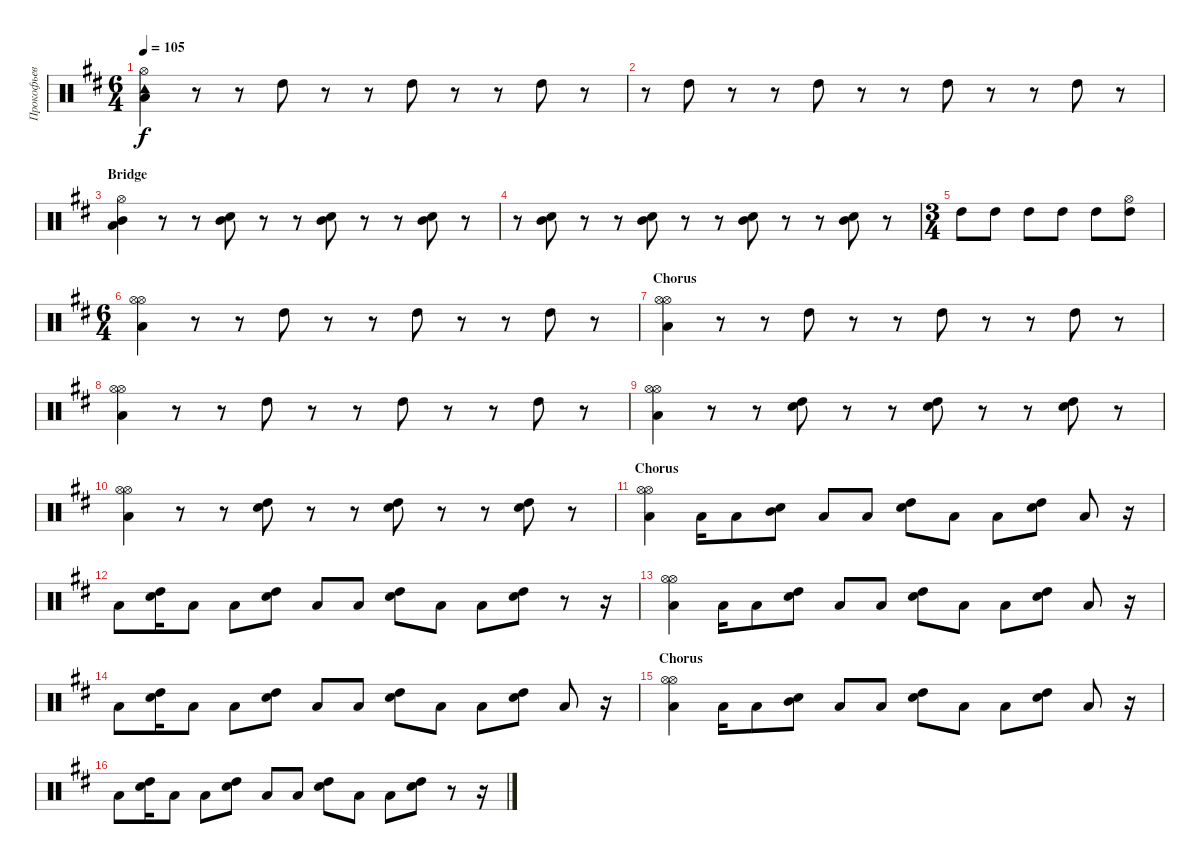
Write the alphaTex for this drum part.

\track ("Прокофьев" "Прокофьев") {instrument percussion}
\staff {score}
\articulation defaults
\ts (6 4)
\tempo 105
\clef neutral
\ks d
("Tambourine (hit)" "Hi-Hat (open)" "Low Tom (hit)").4{dy f} r.8 r.8 "High Tom (hit)".8 r.8 r.8 "High Tom (hit)".8 r.8 r.8 "High Tom (hit)".8 r.8 |
r.8 "High Tom (hit)".8 r.8 r.8 "High Tom (hit)".8 r.8 r.8 "High Tom (hit)".8 r.8 r.8 "High Tom (hit)".8 r.8 |
\section ("" "Bridge")
("Mid Tom (hit)" "Hi-Hat (open)" "Low Tom (hit)").4 r.8 r.8 ("Mid Tom (hit)" "Snare (hit) 2").8 r.8 r.8 ("Mid Tom (hit)" "Snare (hit) 2").8 r.8 r.8 ("Mid Tom (hit)" "Snare (hit) 2").8 r.8 |
r.8 ("Mid Tom (hit)" "Snare (hit) 2").8 r.8 r.8 ("Mid Tom (hit)" "Snare (hit) 2").8 r.8 r.8 ("Mid Tom (hit)" "Snare (hit) 2").8 r.8 r.8 ("Mid Tom (hit)" "Snare (hit) 2").8 r.8 |
\ts (3 4)
"High Tom (hit)".8 "High Tom (hit)".8 "High Tom (hit)".8 "High Tom (hit)".8 "High Tom (hit)".8 ("High Tom (hit)" "Hi-Hat (open)").8 |
\ts (6 4)
("Low Tom (hit)" "Hi-Hat (open)" "Hi-Hat (open)").4 r.8 r.8 "High Tom (hit)".8 r.8 r.8 "High Tom (hit)".8 r.8 r.8 "High Tom (hit)".8 r.8 |
\section ("" "Chorus")
("Low Tom (hit)" "Hi-Hat (open)" "Hi-Hat (open)").4 r.8 r.8 "High Tom (hit)".8 r.8 r.8 "High Tom (hit)".8 r.8 r.8 "High Tom (hit)".8 r.8 |
("Low Tom (hit)" "Hi-Hat (open)" "Hi-Hat (open)").4 r.8 r.8 "High Tom (hit)".8 r.8 r.8 "High Tom (hit)".8 r.8 r.8 "High Tom (hit)".8 r.8 |
("Low Tom (hit)" "Hi-Hat (open)" "Hi-Hat (open)").4 r.8 r.8 ("High Tom (hit)" "Snare (hit) 2").8 r.8 r.8 ("High Tom (hit)" "Snare (hit) 2").8 r.8 r.8 ("High Tom (hit)" "Snare (hit) 2").8 r.8 |
("Low Tom (hit)" "Hi-Hat (open)" "Hi-Hat (open)").4 r.8 r.8 ("High Tom (hit)" "Snare (hit) 2").8 r.8 r.8 ("High Tom (hit)" "Snare (hit) 2").8 r.8 r.8 ("High Tom (hit)" "Snare (hit) 2").8 r.8 |
\section ("" "Chorus")
("Low Tom (hit)" "Hi-Hat (open)" "Hi-Hat (open)").4 "Low Tom (hit)".16 "Low Tom (hit)".8 ("Mid Tom (hit)" "Snare (hit) 2").8 "Low Tom (hit)".8 "Low Tom (hit)".8 ("High Tom (hit)" "Snare (hit) 2").8 "Low Tom (hit)".8 "Low Tom (hit)".8 ("High Tom (hit)" "Snare (hit) 2").8 "Low Tom (hit)".8 r.16 |
"Low Tom (hit)".8 ("High Tom (hit)" "Snare (hit) 2").16 "Low Tom (hit)".8 "Low Tom (hit)".8 ("High Tom (hit)" "Snare (hit) 2").8 "Low Tom (hit)".8 "Low Tom (hit)".8 ("High Tom (hit)" "Snare (hit) 2").8 "Low Tom (hit)".8 "Low Tom (hit)".8 ("High Tom (hit)" "Snare (hit) 2").8 r.8 r.16 |
("Low Tom (hit)" "Hi-Hat (open)" "Hi-Hat (open)").4 "Low Tom (hit)".16 "Low Tom (hit)".8 ("High Tom (hit)" "Snare (hit) 2").8 "Low Tom (hit)".8 "Low Tom (hit)".8 ("High Tom (hit)" "Snare (hit) 2").8 "Low Tom (hit)".8 "Low Tom (hit)".8 ("High Tom (hit)" "Snare (hit) 2").8 "Low Tom (hit)".8 r.16 |
"Low Tom (hit)".8 ("High Tom (hit)" "Snare (hit) 2").16 "Low Tom (hit)".8 "Low Tom (hit)".8 ("High Tom (hit)" "Snare (hit) 2").8 "Low Tom (hit)".8 "Low Tom (hit)".8 ("High Tom (hit)" "Snare (hit) 2").8 "Low Tom (hit)".8 "Low Tom (hit)".8 ("High Tom (hit)" "Snare (hit) 2").8 "Low Tom (hit)".8 r.16 |
\section ("" "Chorus")
("Low Tom (hit)" "Hi-Hat (open)" "Hi-Hat (open)").4 "Low Tom (hit)".16 "Low Tom (hit)".8 ("Mid Tom (hit)" "Snare (hit) 2").8 "Low Tom (hit)".8 "Low Tom (hit)".8 ("High Tom (hit)" "Snare (hit) 2").8 "Low Tom (hit)".8 "Low Tom (hit)".8 ("High Tom (hit)" "Snare (hit) 2").8 "Low Tom (hit)".8 r.16 |
"Low Tom (hit)".8 ("High Tom (hit)" "Snare (hit) 2").16 "Low Tom (hit)".8 "Low Tom (hit)".8 ("High Tom (hit)" "Snare (hit) 2").8 "Low Tom (hit)".8 "Low Tom (hit)".8 ("High Tom (hit)" "Snare (hit) 2").8 "Low Tom (hit)".8 "Low Tom (hit)".8 ("High Tom (hit)" "Snare (hit) 2").8 r.8 r.16
